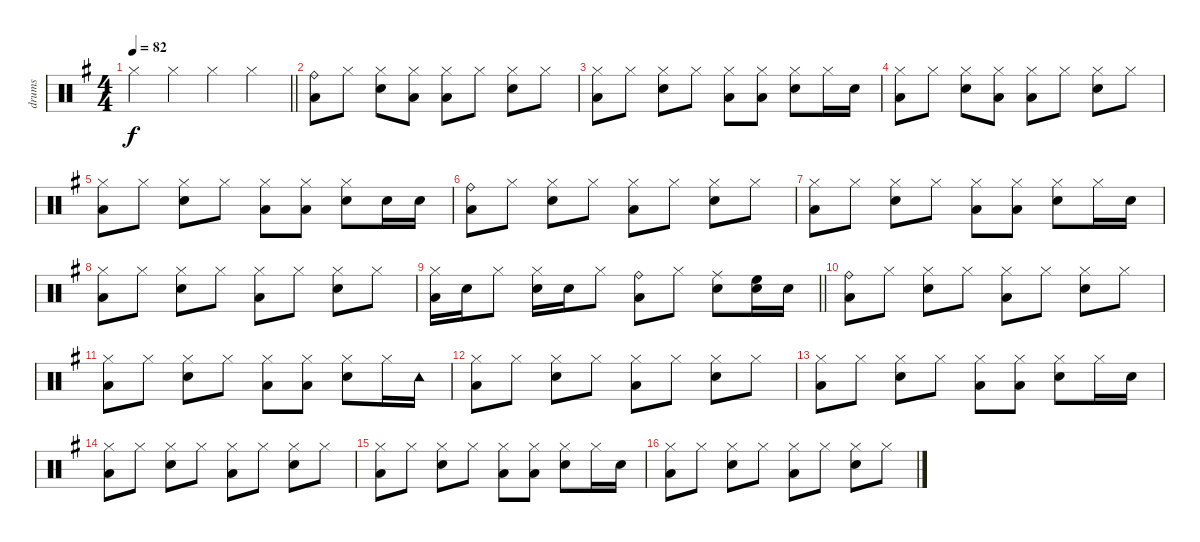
\track ("drums" "drums") {instrument percussion}
\staff {score}
\articulation defaults
\ts (4 4)
\tempo 82
\clef neutral
\barLineRight lightlight
\ks g "Hi-Hat (closed)".4{dy f} "Hi-Hat (closed)".4 "Hi-Hat (closed)".4 "Hi-Hat (closed)".4
|
("Ride (bell)" "Low Floor Tom (hit)").8 "Hi-Hat (closed)".8 ("Hi-Hat (closed)" "Electric Snare (hit)").8 ("Hi-Hat (closed)" "Low Floor Tom (hit)").8 ("Hi-Hat (closed)" "Low Floor Tom (hit)").8 "Hi-Hat (closed)".8 ("Hi-Hat (closed)" "Electric Snare (hit)").8 "Hi-Hat (closed)".8 |
("Hi-Hat (closed)" "Low Floor Tom (hit)").8 "Hi-Hat (closed)".8 ("Hi-Hat (closed)" "Electric Snare (hit)").8 "Hi-Hat (closed)".8 ("Hi-Hat (closed)" "Low Floor Tom (hit)").8 ("Hi-Hat (closed)" "Low Floor Tom (hit)").8 ("Hi-Hat (closed)" "Electric Snare (hit)").8 "Hi-Hat (closed)".16 "Electric Snare (hit)".16 |
("Hi-Hat (closed)" "Low Floor Tom (hit)").8 "Hi-Hat (closed)".8 ("Hi-Hat (closed)" "Electric Snare (hit)").8 ("Hi-Hat (closed)" "Low Floor Tom (hit)").8 ("Hi-Hat (closed)" "Low Floor Tom (hit)").8 "Hi-Hat (closed)".8 ("Hi-Hat (closed)" "Electric Snare (hit)").8 "Hi-Hat (closed)".8 |
("Hi-Hat (closed)" "Low Floor Tom (hit)").8 "Hi-Hat (closed)".8 ("Hi-Hat (closed)" "Electric Snare (hit)").8 "Hi-Hat (closed)".8 ("Hi-Hat (closed)" "Low Floor Tom (hit)").8 ("Hi-Hat (closed)" "Low Floor Tom (hit)").8 ("Hi-Hat (closed)" "Electric Snare (hit)").8 "Electric Snare (hit)".16 "Electric Snare (hit)".16 |
("Ride (bell)" "Low Floor Tom (hit)").8 "Hi-Hat (closed)".8 ("Hi-Hat (closed)" "Electric Snare (hit)").8 "Hi-Hat (closed)".8 ("Hi-Hat (closed)" "Low Floor Tom (hit)").8 "Hi-Hat (closed)".8 ("Hi-Hat (closed)" "Electric Snare (hit)").8 "Hi-Hat (closed)".8 |
("Hi-Hat (closed)" "Low Floor Tom (hit)").8 "Hi-Hat (closed)".8 ("Hi-Hat (closed)" "Electric Snare (hit)").8 "Hi-Hat (closed)".8 ("Hi-Hat (closed)" "Low Floor Tom (hit)").8 ("Hi-Hat (closed)" "Low Floor Tom (hit)").8 ("Hi-Hat (closed)" "Electric Snare (hit)").8 "Hi-Hat (closed)".16 "Electric Snare (hit)".16 |
("Hi-Hat (closed)" "Low Floor Tom (hit)").8 "Hi-Hat (closed)".8 ("Hi-Hat (closed)" "Electric Snare (hit)").8 "Hi-Hat (closed)".8 ("Hi-Hat (closed)" "Low Floor Tom (hit)").8 "Hi-Hat (closed)".8 ("Hi-Hat (closed)" "Electric Snare (hit)").8 "Hi-Hat (closed)".8 |
\barLineRight lightlight
("Hi-Hat (closed)" "Low Floor Tom (hit)").16 "Electric Snare (hit)".16 "Hi-Hat (closed)".8 ("Hi-Hat (closed)" "Electric Snare (hit)").16 "Electric Snare (hit)".16 "Hi-Hat (closed)".8 ("Ride (bell)" "Low Floor Tom (hit)").8 "Hi-Hat (closed)".8 ("Ride (middle)" "Electric Snare (hit)").8 ("High Floor Tom (hit)" "Electric Snare (hit)").16 "Electric Snare (hit)".16 |
("Ride (bell)" "Low Floor Tom (hit)").8 "Hi-Hat (closed)".8 ("Hi-Hat (closed)" "Electric Snare (hit)").8 "Hi-Hat (closed)".8 ("Hi-Hat (closed)" "Low Floor Tom (hit)").8 "Hi-Hat (closed)".8 ("Hi-Hat (closed)" "Electric Snare (hit)").8 "Hi-Hat (closed)".8 |
("Hi-Hat (closed)" "Low Floor Tom (hit)").8 "Hi-Hat (closed)".8 ("Hi-Hat (closed)" "Electric Snare (hit)").8 "Hi-Hat (closed)".8 ("Hi-Hat (closed)" "Low Floor Tom (hit)").8 ("Hi-Hat (closed)" "Low Floor Tom (hit)").8 ("Hi-Hat (closed)" "Electric Snare (hit)").8 "Hi-Hat (closed)".16 "Tambourine (hit)".16 |
("Hi-Hat (closed)" "Low Floor Tom (hit)").8 "Hi-Hat (closed)".8 ("Hi-Hat (closed)" "Electric Snare (hit)").8 "Hi-Hat (closed)".8 ("Hi-Hat (closed)" "Low Floor Tom (hit)").8 "Hi-Hat (closed)".8 ("Hi-Hat (closed)" "Electric Snare (hit)").8 "Hi-Hat (closed)".8 |
("Hi-Hat (closed)" "Low Floor Tom (hit)").8 "Hi-Hat (closed)".8 ("Hi-Hat (closed)" "Electric Snare (hit)").8 "Hi-Hat (closed)".8 ("Hi-Hat (closed)" "Low Floor Tom (hit)").8 ("Hi-Hat (closed)" "Low Floor Tom (hit)").8 ("Hi-Hat (closed)" "Electric Snare (hit)").8 "Hi-Hat (closed)".16 "Electric Snare (hit)".16 |
("Hi-Hat (closed)" "Low Floor Tom (hit)").8 "Hi-Hat (closed)".8 ("Hi-Hat (closed)" "Electric Snare (hit)").8 "Hi-Hat (closed)".8 ("Hi-Hat (closed)" "Low Floor Tom (hit)").8 "Hi-Hat (closed)".8 ("Hi-Hat (closed)" "Electric Snare (hit)").8 "Hi-Hat (closed)".8 |
("Hi-Hat (closed)" "Low Floor Tom (hit)").8 "Hi-Hat (closed)".8 ("Hi-Hat (closed)" "Electric Snare (hit)").8 "Hi-Hat (closed)".8 ("Hi-Hat (closed)" "Low Floor Tom (hit)").8 ("Hi-Hat (closed)" "Low Floor Tom (hit)").8 ("Hi-Hat (closed)" "Electric Snare (hit)").8 "Hi-Hat (closed)".16 "Electric Snare (hit)".16 |
("Hi-Hat (closed)" "Low Floor Tom (hit)").8 "Hi-Hat (closed)".8 ("Hi-Hat (closed)" "Electric Snare (hit)").8 "Hi-Hat (closed)".8 ("Hi-Hat (closed)" "Low Floor Tom (hit)").8 "Hi-Hat (closed)".8 ("Hi-Hat (closed)" "Electric Snare (hit)").8 "Hi-Hat (closed)".8
